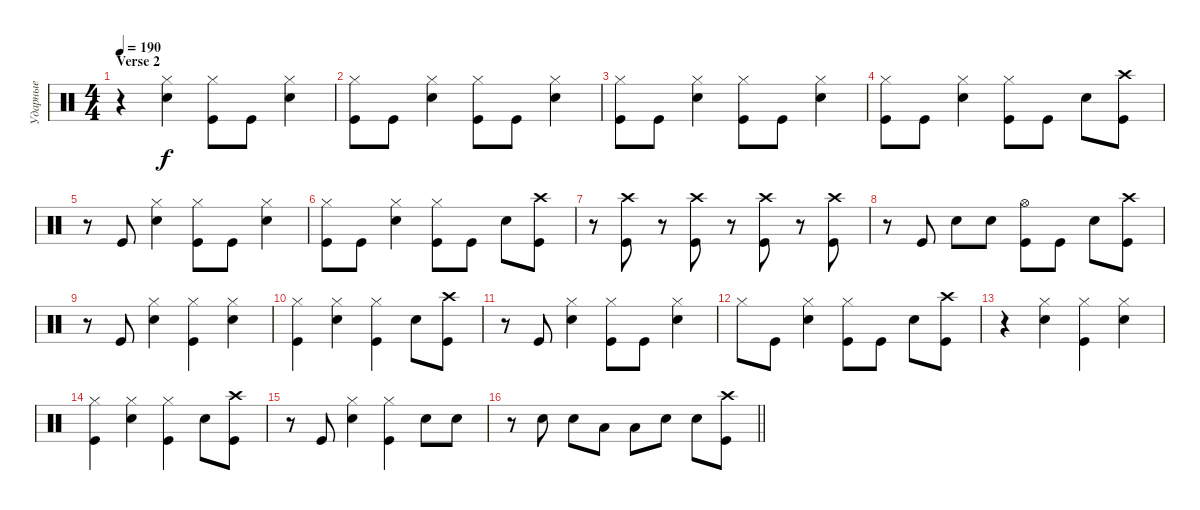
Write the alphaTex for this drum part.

\track ("Ударные" "Ударные") {instrument percussion}
\staff {score}
\articulation defaults
\ts (4 4)
\section ("" "Verse 2")
\tempo 190
\clef neutral
\ks aminor
r.4{dy f} ("Snare (hit) 2" "Hi-Hat (closed)").4 ("Kick (hit)" "Hi-Hat (closed)").8 "Kick (hit)".8 ("Snare (hit) 2" "Hi-Hat (closed)").4 |
("Kick (hit)" "Hi-Hat (closed)").8 "Kick (hit)".8 ("Snare (hit) 2" "Hi-Hat (closed)").4 ("Kick (hit)" "Hi-Hat (closed)").8 "Kick (hit)".8 ("Snare (hit) 2" "Hi-Hat (closed)").4 |
("Kick (hit)" "Hi-Hat (closed)").8 "Kick (hit)".8 ("Snare (hit) 2" "Hi-Hat (closed)").4 ("Kick (hit)" "Hi-Hat (closed)").8 "Kick (hit)".8 ("Snare (hit) 2" "Hi-Hat (closed)").4 |
("Kick (hit)" "Hi-Hat (closed)").8 "Kick (hit)".8 ("Snare (hit) 2" "Hi-Hat (closed)").4 ("Kick (hit)" "Hi-Hat (closed)").8 "Kick (hit)".8 "Snare (hit) 2".8 ("Kick (hit)" "Crash high (hit)").8 |
r.8 "Kick (hit)".8 ("Snare (hit) 2" "Hi-Hat (closed)").4 ("Kick (hit)" "Hi-Hat (closed)").8 "Kick (hit)".8 ("Snare (hit) 2" "Hi-Hat (closed)").4 |
("Kick (hit)" "Hi-Hat (closed)").8 "Kick (hit)".8 ("Snare (hit) 2" "Hi-Hat (closed)").4 ("Kick (hit)" "Hi-Hat (closed)").8 "Kick (hit)".8 "Snare (hit) 2".8 ("Kick (hit)" "Crash high (hit)").8 |
r.8 ("Kick (hit)" "Crash high (hit)").8 r.8 ("Kick (hit)" "Crash high (hit)").8 r.8 ("Kick (hit)" "Crash high (hit)").8 r.8 ("Kick (hit)" "Crash high (hit)").8 |
r.8 "Kick (hit)".8 "Snare (hit) 2".8 "Snare (hit) 2".8 ("Kick (hit)" "Hi-Hat (open)").8 "Kick (hit)".8 "Snare (hit) 2".8 ("Kick (hit)" "Crash high (hit)").8 |
r.8 "Kick (hit)".8 ("Snare (hit) 2" "Hi-Hat (closed)").4 ("Kick (hit)" "Hi-Hat (closed)").4 ("Snare (hit) 2" "Hi-Hat (closed)").4 |
("Kick (hit)" "Hi-Hat (closed)").4 ("Snare (hit) 2" "Hi-Hat (closed)").4 ("Kick (hit)" "Hi-Hat (closed)").4 "Snare (hit) 2".8 ("Kick (hit)" "Crash high (hit)").8 |
r.8 "Kick (hit)".8 ("Snare (hit) 2" "Hi-Hat (closed)").4 ("Kick (hit)" "Hi-Hat (closed)").8 "Kick (hit)".8 ("Snare (hit) 2" "Hi-Hat (closed)").4 |
"Hi-Hat (closed)".8 "Kick (hit)".8 ("Snare (hit) 2" "Hi-Hat (closed)").4 ("Kick (hit)" "Hi-Hat (closed)").8 "Kick (hit)".8 "Snare (hit) 2".8 ("Kick (hit)" "Crash high (hit)").8 |
r.4 ("Snare (hit) 2" "Hi-Hat (closed)").4 ("Kick (hit)" "Hi-Hat (closed)").4 ("Snare (hit) 2" "Hi-Hat (closed)").4 |
("Kick (hit)" "Hi-Hat (closed)").4 ("Snare (hit) 2" "Hi-Hat (closed)").4 ("Kick (hit)" "Hi-Hat (closed)").4 "Snare (hit) 2".8 ("Kick (hit)" "Crash high (hit)").8 |
r.8 "Kick (hit)".8 ("Snare (hit) 2" "Hi-Hat (closed)").4 ("Kick (hit)" "Hi-Hat (closed)").4 "Snare (hit) 2".8 "Snare (hit) 2".8 |
\barLineRight lightlight
r.8 "Snare (hit) 2".8 "Snare (hit) 2".8 "Low Tom (hit)".8 "Low Tom (hit)".8 "Snare (hit) 2".8 "Snare (hit) 2".8 ("Kick (hit)" "Crash high (hit)").8
